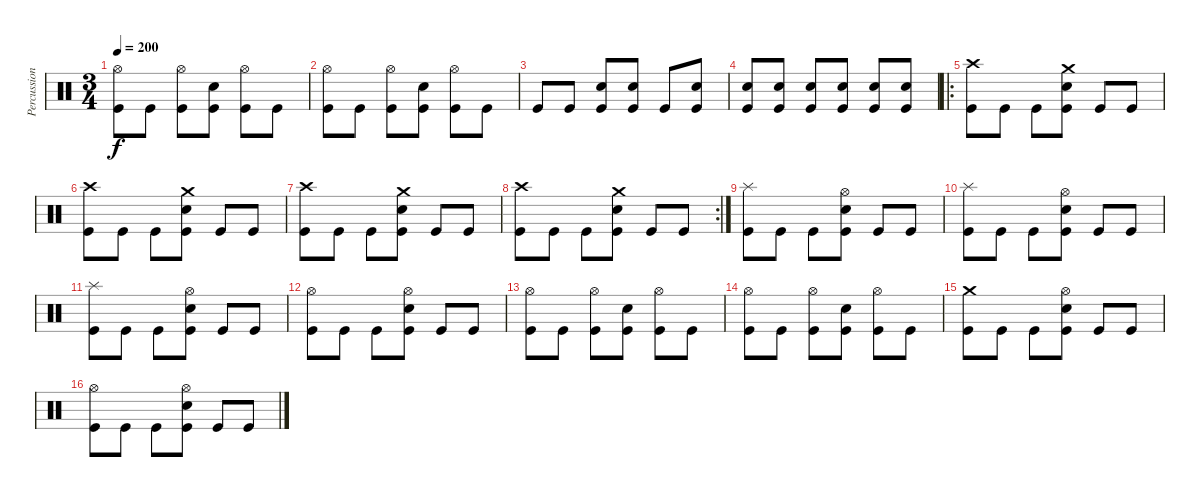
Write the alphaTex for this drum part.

\track ("Percussion" "Percussion") {instrument percussion}
\staff {score}
\articulation defaults
\ts (3 4)
\tempo 200
\clef neutral
\ks c
("Hi-Hat (open)" "Kick (hit)").8{dy f} "Kick (hit)".8 ("Hi-Hat (open)" "Kick (hit)").8 ("Snare (hit) 2" "Kick (hit)").8 ("Hi-Hat (open)" "Kick (hit)").8 "Kick (hit)".8 |
("Hi-Hat (open)" "Kick (hit)").8 "Kick (hit)".8 ("Hi-Hat (open)" "Kick (hit)").8 ("Snare (hit) 2" "Kick (hit)").8 ("Hi-Hat (open)" "Kick (hit)").8 "Kick (hit)".8 |
"Kick (hit)".8 "Kick (hit)".8 ("Snare (hit) 2" "Kick (hit)").8 ("Snare (hit) 2" "Kick (hit)").8 "Kick (hit)".8 ("Snare (hit) 2" "Kick (hit)").8 |
("Snare (hit) 2" "Kick (hit)").8 ("Snare (hit) 2" "Kick (hit)").8 ("Snare (hit) 2" "Kick (hit)").8 ("Snare (hit) 2" "Kick (hit)").8 ("Snare (hit) 2" "Kick (hit)").8 ("Snare (hit) 2" "Kick (hit)").8 |
\ro
("Crash high (hit)" "Kick (hit)").8 "Kick (hit)".8 "Kick (hit)".8 ("Crash medium (hit)" "Snare (hit) 2" "Kick (hit)").8 "Kick (hit)".8 "Kick (hit)".8 |
("Crash high (hit)" "Kick (hit)").8 "Kick (hit)".8 "Kick (hit)".8 ("Crash medium (hit)" "Snare (hit) 2" "Kick (hit)").8 "Kick (hit)".8 "Kick (hit)".8 |
("Crash high (hit)" "Kick (hit)").8 "Kick (hit)".8 "Kick (hit)".8 ("Crash medium (hit)" "Snare (hit) 2" "Kick (hit)").8 "Kick (hit)".8 "Kick (hit)".8 |
\rc 2
("Crash high (hit)" "Kick (hit)").8 "Kick (hit)".8 "Kick (hit)".8 ("Crash medium (hit)" "Snare (hit) 2" "Kick (hit)").8 "Kick (hit)".8 "Kick (hit)".8 |
("Splash (hit)" "Kick (hit)").8 "Kick (hit)".8 "Kick (hit)".8 ("Hi-Hat (open)" "Snare (hit) 2" "Kick (hit)").8 "Kick (hit)".8 "Kick (hit)".8 |
("Splash (hit)" "Kick (hit)").8 "Kick (hit)".8 "Kick (hit)".8 ("Hi-Hat (open)" "Snare (hit) 2" "Kick (hit)").8 "Kick (hit)".8 "Kick (hit)".8 |
("Splash (hit)" "Kick (hit)").8 "Kick (hit)".8 "Kick (hit)".8 ("Hi-Hat (open)" "Snare (hit) 2" "Kick (hit)").8 "Kick (hit)".8 "Kick (hit)".8 |
("Hi-Hat (open)" "Kick (hit)").8 "Kick (hit)".8 "Kick (hit)".8 ("Hi-Hat (open)" "Snare (hit) 2" "Kick (hit)").8 "Kick (hit)".8 "Kick (hit)".8 |
("Hi-Hat (open)" "Kick (hit)").8 "Kick (hit)".8 ("Hi-Hat (open)" "Kick (hit)").8 ("Snare (hit) 2" "Kick (hit)").8 ("Hi-Hat (open)" "Kick (hit)").8 "Kick (hit)".8 |
("Hi-Hat (open)" "Kick (hit)").8 "Kick (hit)".8 ("Hi-Hat (open)" "Kick (hit)").8 ("Snare (hit) 2" "Kick (hit)").8 ("Hi-Hat (open)" "Kick (hit)").8 "Kick (hit)".8 |
("Crash medium (hit)" "Kick (hit)").8 "Kick (hit)".8 "Kick (hit)".8 ("Hi-Hat (open)" "Snare (hit) 2" "Kick (hit)").8 "Kick (hit)".8 "Kick (hit)".8 |
("Hi-Hat (open)" "Kick (hit)").8 "Kick (hit)".8 "Kick (hit)".8 ("Hi-Hat (open)" "Snare (hit) 2" "Kick (hit)").8 "Kick (hit)".8 "Kick (hit)".8
